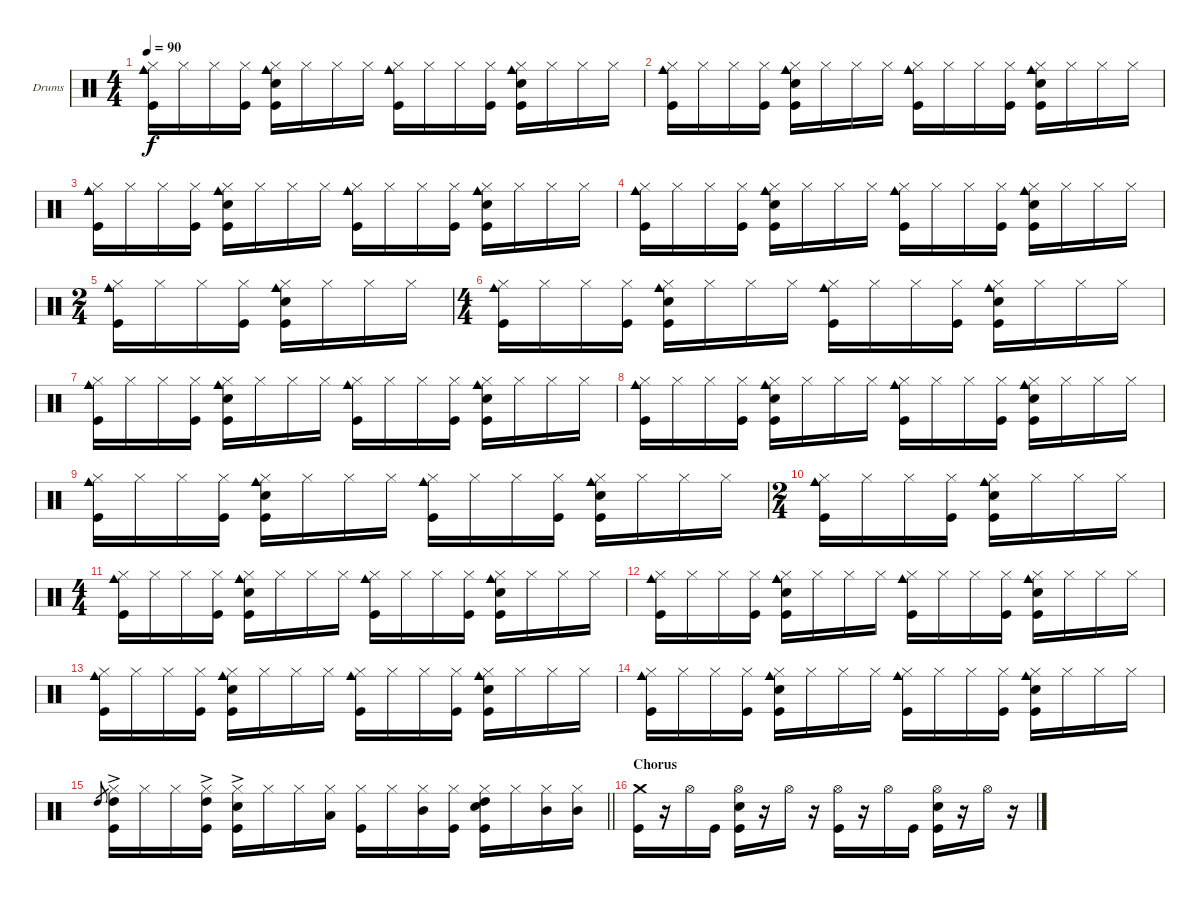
\bracketExtendMode groupsimilarinstruments
\firstSystemTrackNameOrientation horizontal
\otherSystemsTrackNameOrientation horizontal
\track ("Drums" "Drums") {multiBarRest instrument percussion}
\staff {score}
\articulation defaults
\ts (4 4)
\beaming (8 2 2 2 2)
\tempo 90
\clef neutral
\ks c
("Hi-Hat (closed)" "Kick (hit)" "Cowbell medium (hit)").16{dy f} "Hi-Hat (closed)".16 "Hi-Hat (closed)".16 ("Hi-Hat (closed)" "Kick (hit)").16 ("Hi-Hat (closed)" "Snare (hit) 2" "Kick (hit)" "Cowbell medium (hit)").16 "Hi-Hat (closed)".16 "Hi-Hat (closed)".16 "Hi-Hat (closed)".16 ("Hi-Hat (closed)" "Kick (hit)" "Cowbell medium (hit)").16 "Hi-Hat (closed)".16 "Hi-Hat (closed)".16 ("Hi-Hat (closed)" "Kick (hit)").16 ("Hi-Hat (closed)" "Snare (hit) 2" "Kick (hit)" "Cowbell medium (hit)").16 "Hi-Hat (closed)".16 "Hi-Hat (closed)".16 "Hi-Hat (closed)".16 |
("Hi-Hat (closed)" "Kick (hit)" "Cowbell medium (hit)").16 "Hi-Hat (closed)".16 "Hi-Hat (closed)".16 ("Hi-Hat (closed)" "Kick (hit)").16 ("Hi-Hat (closed)" "Snare (hit) 2" "Kick (hit)" "Cowbell medium (hit)").16 "Hi-Hat (closed)".16 "Hi-Hat (closed)".16 "Hi-Hat (closed)".16 ("Hi-Hat (closed)" "Kick (hit)" "Cowbell medium (hit)").16 "Hi-Hat (closed)".16 "Hi-Hat (closed)".16 ("Hi-Hat (closed)" "Kick (hit)").16 ("Hi-Hat (closed)" "Snare (hit) 2" "Kick (hit)" "Cowbell medium (hit)").16 "Hi-Hat (closed)".16 "Hi-Hat (closed)".16 "Hi-Hat (closed)".16 |
("Hi-Hat (closed)" "Kick (hit)" "Cowbell medium (hit)").16 "Hi-Hat (closed)".16 "Hi-Hat (closed)".16 ("Hi-Hat (closed)" "Kick (hit)").16 ("Hi-Hat (closed)" "Snare (hit) 2" "Kick (hit)" "Cowbell medium (hit)").16 "Hi-Hat (closed)".16 "Hi-Hat (closed)".16 "Hi-Hat (closed)".16 ("Hi-Hat (closed)" "Kick (hit)" "Cowbell medium (hit)").16 "Hi-Hat (closed)".16 "Hi-Hat (closed)".16 ("Hi-Hat (closed)" "Kick (hit)").16 ("Hi-Hat (closed)" "Snare (hit) 2" "Kick (hit)" "Cowbell medium (hit)").16 "Hi-Hat (closed)".16 "Hi-Hat (closed)".16 "Hi-Hat (closed)".16 |
("Hi-Hat (closed)" "Kick (hit)" "Cowbell medium (hit)").16 "Hi-Hat (closed)".16 "Hi-Hat (closed)".16 ("Hi-Hat (closed)" "Kick (hit)").16 ("Hi-Hat (closed)" "Snare (hit) 2" "Kick (hit)" "Cowbell medium (hit)").16 "Hi-Hat (closed)".16 "Hi-Hat (closed)".16 "Hi-Hat (closed)".16 ("Hi-Hat (closed)" "Kick (hit)" "Cowbell medium (hit)").16 "Hi-Hat (closed)".16 "Hi-Hat (closed)".16 ("Hi-Hat (closed)" "Kick (hit)").16 ("Hi-Hat (closed)" "Snare (hit) 2" "Kick (hit)" "Cowbell medium (hit)").16 "Hi-Hat (closed)".16 "Hi-Hat (closed)".16 "Hi-Hat (closed)".16 |
\ts (2 4)
\beaming (8 2 2)
("Hi-Hat (closed)" "Kick (hit)" "Cowbell medium (hit)").16 "Hi-Hat (closed)".16 "Hi-Hat (closed)".16 ("Hi-Hat (closed)" "Kick (hit)").16 ("Hi-Hat (closed)" "Snare (hit) 2" "Kick (hit)" "Cowbell medium (hit)").16 "Hi-Hat (closed)".16 "Hi-Hat (closed)".16 "Hi-Hat (closed)".16 |
\ts (4 4)
\beaming (8 2 2 2 2)
("Hi-Hat (closed)" "Kick (hit)" "Cowbell medium (hit)").16 "Hi-Hat (closed)".16 "Hi-Hat (closed)".16 ("Hi-Hat (closed)" "Kick (hit)").16 ("Hi-Hat (closed)" "Snare (hit) 2" "Kick (hit)" "Cowbell medium (hit)").16 "Hi-Hat (closed)".16 "Hi-Hat (closed)".16 "Hi-Hat (closed)".16 ("Hi-Hat (closed)" "Kick (hit)" "Cowbell medium (hit)").16 "Hi-Hat (closed)".16 "Hi-Hat (closed)".16 ("Hi-Hat (closed)" "Kick (hit)").16 ("Hi-Hat (closed)" "Snare (hit) 2" "Kick (hit)" "Cowbell medium (hit)").16 "Hi-Hat (closed)".16 "Hi-Hat (closed)".16 "Hi-Hat (closed)".16 |
("Hi-Hat (closed)" "Kick (hit)" "Cowbell medium (hit)").16 "Hi-Hat (closed)".16 "Hi-Hat (closed)".16 ("Hi-Hat (closed)" "Kick (hit)").16 ("Hi-Hat (closed)" "Snare (hit) 2" "Kick (hit)" "Cowbell medium (hit)").16 "Hi-Hat (closed)".16 "Hi-Hat (closed)".16 "Hi-Hat (closed)".16 ("Hi-Hat (closed)" "Kick (hit)" "Cowbell medium (hit)").16 "Hi-Hat (closed)".16 "Hi-Hat (closed)".16 ("Hi-Hat (closed)" "Kick (hit)").16 ("Hi-Hat (closed)" "Snare (hit) 2" "Kick (hit)" "Cowbell medium (hit)").16 "Hi-Hat (closed)".16 "Hi-Hat (closed)".16 "Hi-Hat (closed)".16 |
("Hi-Hat (closed)" "Kick (hit)" "Cowbell medium (hit)").16 "Hi-Hat (closed)".16 "Hi-Hat (closed)".16 ("Hi-Hat (closed)" "Kick (hit)").16 ("Hi-Hat (closed)" "Snare (hit) 2" "Kick (hit)" "Cowbell medium (hit)").16 "Hi-Hat (closed)".16 "Hi-Hat (closed)".16 "Hi-Hat (closed)".16 ("Hi-Hat (closed)" "Kick (hit)" "Cowbell medium (hit)").16 "Hi-Hat (closed)".16 "Hi-Hat (closed)".16 ("Hi-Hat (closed)" "Kick (hit)").16 ("Hi-Hat (closed)" "Snare (hit) 2" "Kick (hit)" "Cowbell medium (hit)").16 "Hi-Hat (closed)".16 "Hi-Hat (closed)".16 "Hi-Hat (closed)".16 |
("Hi-Hat (closed)" "Kick (hit)" "Cowbell medium (hit)").16 "Hi-Hat (closed)".16 "Hi-Hat (closed)".16 ("Hi-Hat (closed)" "Kick (hit)").16 ("Hi-Hat (closed)" "Snare (hit) 2" "Kick (hit)" "Cowbell medium (hit)").16 "Hi-Hat (closed)".16 "Hi-Hat (closed)".16 "Hi-Hat (closed)".16 ("Hi-Hat (closed)" "Kick (hit)" "Cowbell medium (hit)").16 "Hi-Hat (closed)".16 "Hi-Hat (closed)".16 ("Hi-Hat (closed)" "Kick (hit)").16 ("Hi-Hat (closed)" "Snare (hit) 2" "Kick (hit)" "Cowbell medium (hit)").16 "Hi-Hat (closed)".16 "Hi-Hat (closed)".16 "Hi-Hat (closed)".16 |
\ts (2 4)
\beaming (8 2 2)
("Hi-Hat (closed)" "Kick (hit)" "Cowbell medium (hit)").16 "Hi-Hat (closed)".16 "Hi-Hat (closed)".16 ("Hi-Hat (closed)" "Kick (hit)").16 ("Hi-Hat (closed)" "Snare (hit) 2" "Kick (hit)" "Cowbell medium (hit)").16 "Hi-Hat (closed)".16 "Hi-Hat (closed)".16 "Hi-Hat (closed)".16 |
\ts (4 4)
\beaming (8 2 2 2 2)
("Hi-Hat (closed)" "Kick (hit)" "Cowbell medium (hit)").16 "Hi-Hat (closed)".16 "Hi-Hat (closed)".16 ("Hi-Hat (closed)" "Kick (hit)").16 ("Hi-Hat (closed)" "Snare (hit) 2" "Kick (hit)" "Cowbell medium (hit)").16 "Hi-Hat (closed)".16 "Hi-Hat (closed)".16 "Hi-Hat (closed)".16 ("Hi-Hat (closed)" "Kick (hit)" "Cowbell medium (hit)").16 "Hi-Hat (closed)".16 "Hi-Hat (closed)".16 ("Hi-Hat (closed)" "Kick (hit)").16 ("Hi-Hat (closed)" "Snare (hit) 2" "Kick (hit)" "Cowbell medium (hit)").16 "Hi-Hat (closed)".16 "Hi-Hat (closed)".16 "Hi-Hat (closed)".16 |
("Hi-Hat (closed)" "Kick (hit)" "Cowbell medium (hit)").16 "Hi-Hat (closed)".16 "Hi-Hat (closed)".16 ("Hi-Hat (closed)" "Kick (hit)").16 ("Hi-Hat (closed)" "Snare (hit) 2" "Kick (hit)" "Cowbell medium (hit)").16 "Hi-Hat (closed)".16 "Hi-Hat (closed)".16 "Hi-Hat (closed)".16 ("Hi-Hat (closed)" "Kick (hit)" "Cowbell medium (hit)").16 "Hi-Hat (closed)".16 "Hi-Hat (closed)".16 ("Hi-Hat (closed)" "Kick (hit)").16 ("Hi-Hat (closed)" "Snare (hit) 2" "Kick (hit)" "Cowbell medium (hit)").16 "Hi-Hat (closed)".16 "Hi-Hat (closed)".16 "Hi-Hat (closed)".16 |
("Hi-Hat (closed)" "Kick (hit)" "Cowbell medium (hit)").16 "Hi-Hat (closed)".16 "Hi-Hat (closed)".16 ("Hi-Hat (closed)" "Kick (hit)").16 ("Hi-Hat (closed)" "Snare (hit) 2" "Kick (hit)" "Cowbell medium (hit)").16 "Hi-Hat (closed)".16 "Hi-Hat (closed)".16 "Hi-Hat (closed)".16 ("Hi-Hat (closed)" "Kick (hit)" "Cowbell medium (hit)").16 "Hi-Hat (closed)".16 "Hi-Hat (closed)".16 ("Hi-Hat (closed)" "Kick (hit)").16 ("Hi-Hat (closed)" "Snare (hit) 2" "Kick (hit)" "Cowbell medium (hit)").16 "Hi-Hat (closed)".16 "Hi-Hat (closed)".16 "Hi-Hat (closed)".16 |
("Hi-Hat (closed)" "Kick (hit)" "Cowbell medium (hit)").16 "Hi-Hat (closed)".16 "Hi-Hat (closed)".16 ("Hi-Hat (closed)" "Kick (hit)").16 ("Hi-Hat (closed)" "Snare (hit) 2" "Kick (hit)" "Cowbell medium (hit)").16 "Hi-Hat (closed)".16 "Hi-Hat (closed)".16 "Hi-Hat (closed)".16 ("Hi-Hat (closed)" "Kick (hit)" "Cowbell medium (hit)").16 "Hi-Hat (closed)".16 "Hi-Hat (closed)".16 ("Hi-Hat (closed)" "Kick (hit)").16 ("Hi-Hat (closed)" "Snare (hit) 2" "Kick (hit)" "Cowbell medium (hit)").16 "Hi-Hat (closed)".16 "Hi-Hat (closed)".16 "Hi-Hat (closed)".16 |
\barLineRight lightlight "High Tom (hit)".8{gr}
("Hi-Hat (closed)" "Kick (hit)" "High Tom (hit)"{ac}).16 "Hi-Hat (closed)".16 "Hi-Hat (closed)".16 ("Hi-Hat (closed)" "Kick (hit)" "High Tom (hit)"{ac}).16 ("Hi-Hat (closed)" "Snare (hit) 2"{ac} "Kick (hit)").16 "Hi-Hat (closed)".16 "Hi-Hat (closed)".16 ("Hi-Hat (closed)" "Low Tom (hit)").16 ("Hi-Hat (closed)" "Kick (hit)").16 "Hi-Hat (closed)".16 ("Hi-Hat (closed)" "Mid Tom (hit)").16 ("Hi-Hat (closed)" "Kick (hit)").16 ("Hi-Hat (closed)" "Snare (hit) 2" "Kick (hit)" "High Tom (hit)").16 "Hi-Hat (closed)".16 ("Hi-Hat (closed)" "Mid Tom (hit)").16 ("Hi-Hat (closed)" "Mid Tom (hit)").16 |
\section ("" "Chorus")
("Crash medium (hit)" "Kick (hit)").16 r.16 "Hi-Hat (open)".16 "Kick (hit)".16 ("Hi-Hat (open)" "Snare (hit) 2" "Kick (hit)").16 r.16 "Hi-Hat (open)".16 r.16 ("Hi-Hat (open)" "Kick (hit)").16 r.16 "Hi-Hat (open)".16 "Kick (hit)".16 ("Hi-Hat (open)" "Snare (hit) 2" "Kick (hit)").16 r.16 "Hi-Hat (open)".16 r.16
